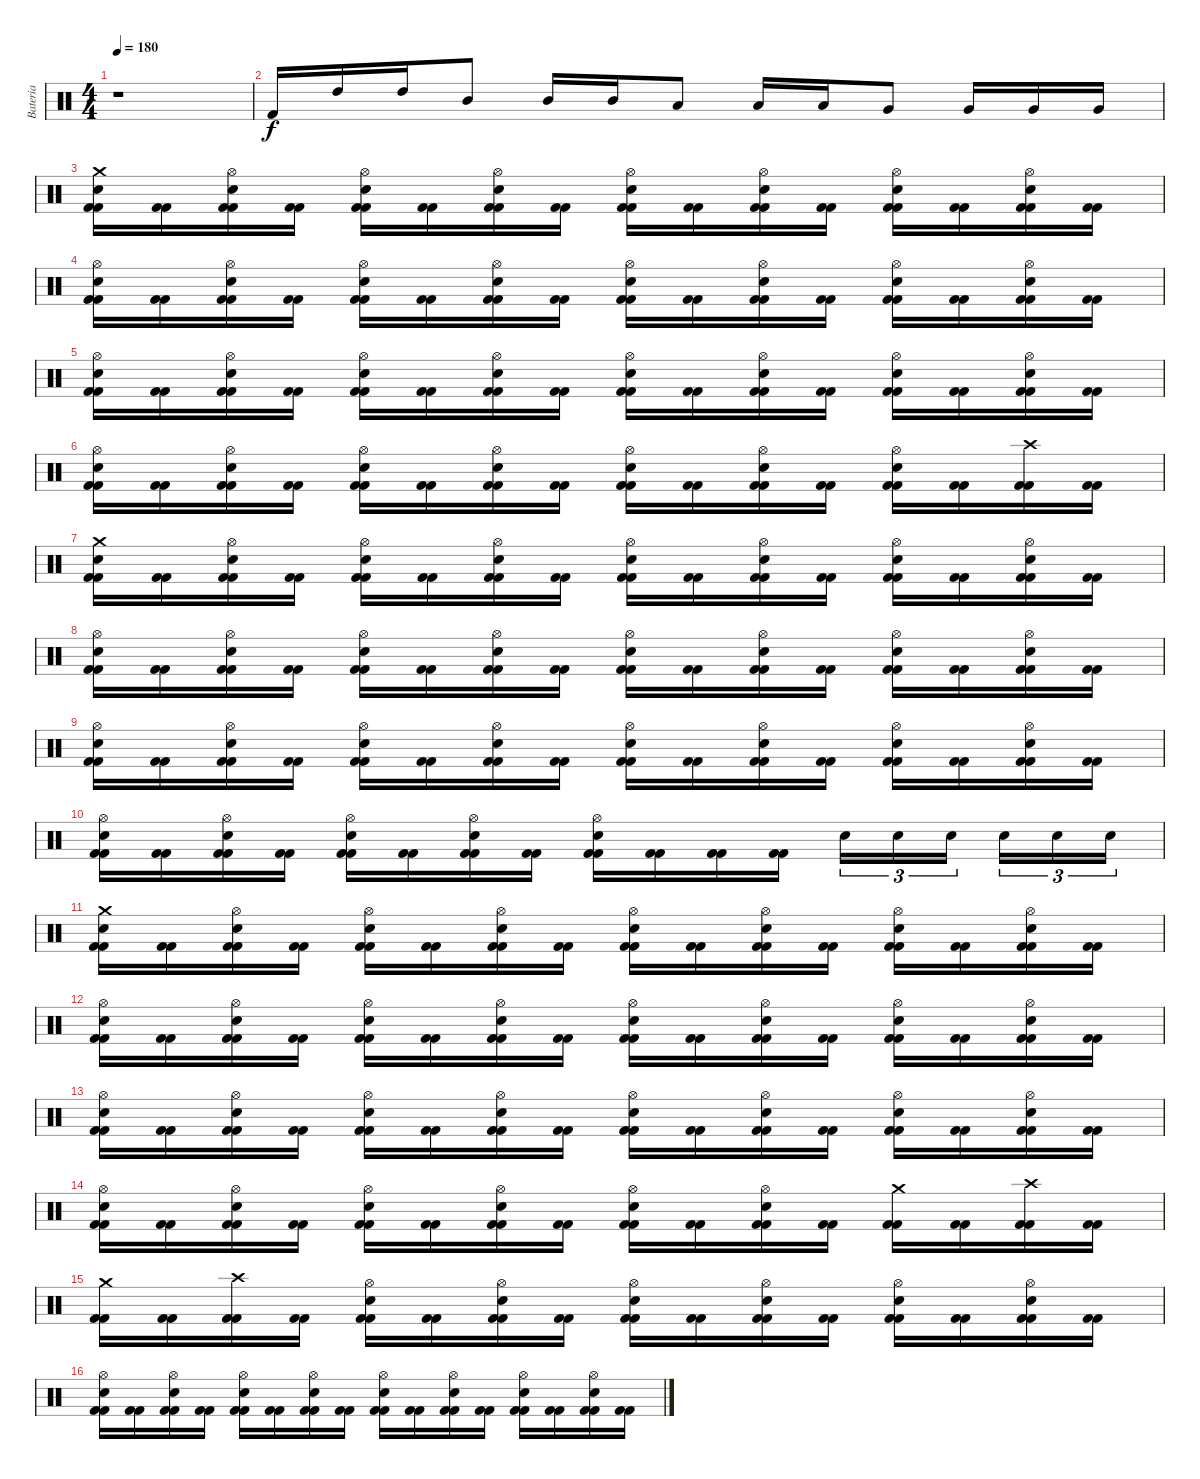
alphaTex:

\track ("Bateria" "Bateria") {instrument percussion}
\staff {score}
\articulation defaults
\ts (4 4)
\tempo 180
\clef neutral
\ks c
r.1{dy f} |
"Kick (hit) 2".16 "High Tom (hit)".16 "High Tom (hit)".16 "Mid Tom (hit)".8 "Mid Tom (hit)".16 "Mid Tom (hit)".16 "Low Tom (hit)".8 "Low Tom (hit)".16 "Low Tom (hit)".16 "Very Low Tom (hit)".8 "Very Low Tom (hit)".16 "Very Low Tom (hit)".16 "Very Low Tom (hit)".16 |
("Kick (hit) 2" "Kick (hit) 2" "Electric Snare (hit)" "Crash medium (hit)").16 ("Kick (hit) 2" "Kick (hit) 2").16 ("Kick (hit) 2" "Kick (hit) 2" "Hi-Hat (open)" "Electric Snare (hit)").16 ("Kick (hit) 2" "Kick (hit) 2").16 ("Kick (hit) 2" "Kick (hit) 2" "Electric Snare (hit)" "Hi-Hat (open)").16 ("Kick (hit) 2" "Kick (hit) 2").16 ("Kick (hit) 2" "Kick (hit) 2" "Hi-Hat (open)" "Electric Snare (hit)").16 ("Kick (hit) 2" "Kick (hit) 2").16 ("Kick (hit) 2" "Kick (hit) 2" "Electric Snare (hit)" "Hi-Hat (open)").16 ("Kick (hit) 2" "Kick (hit) 2").16 ("Kick (hit) 2" "Kick (hit) 2" "Hi-Hat (open)" "Electric Snare (hit)").16 ("Kick (hit) 2" "Kick (hit) 2").16 ("Kick (hit) 2" "Kick (hit) 2" "Electric Snare (hit)" "Hi-Hat (open)").16 ("Kick (hit) 2" "Kick (hit) 2").16 ("Kick (hit) 2" "Kick (hit) 2" "Hi-Hat (open)" "Electric Snare (hit)").16 ("Kick (hit) 2" "Kick (hit) 2").16 |
("Kick (hit) 2" "Kick (hit) 2" "Electric Snare (hit)" "Hi-Hat (open)").16 ("Kick (hit) 2" "Kick (hit) 2").16 ("Kick (hit) 2" "Kick (hit) 2" "Hi-Hat (open)" "Electric Snare (hit)").16 ("Kick (hit) 2" "Kick (hit) 2").16 ("Kick (hit) 2" "Kick (hit) 2" "Electric Snare (hit)" "Hi-Hat (open)").16 ("Kick (hit) 2" "Kick (hit) 2").16 ("Kick (hit) 2" "Kick (hit) 2" "Hi-Hat (open)" "Electric Snare (hit)").16 ("Kick (hit) 2" "Kick (hit) 2").16 ("Kick (hit) 2" "Kick (hit) 2" "Electric Snare (hit)" "Hi-Hat (open)").16 ("Kick (hit) 2" "Kick (hit) 2").16 ("Kick (hit) 2" "Kick (hit) 2" "Hi-Hat (open)" "Electric Snare (hit)").16 ("Kick (hit) 2" "Kick (hit) 2").16 ("Kick (hit) 2" "Kick (hit) 2" "Electric Snare (hit)" "Hi-Hat (open)").16 ("Kick (hit) 2" "Kick (hit) 2").16 ("Kick (hit) 2" "Kick (hit) 2" "Hi-Hat (open)" "Electric Snare (hit)").16 ("Kick (hit) 2" "Kick (hit) 2").16 |
("Kick (hit) 2" "Kick (hit) 2" "Electric Snare (hit)" "Hi-Hat (open)").16 ("Kick (hit) 2" "Kick (hit) 2").16 ("Kick (hit) 2" "Kick (hit) 2" "Hi-Hat (open)" "Electric Snare (hit)").16 ("Kick (hit) 2" "Kick (hit) 2").16 ("Kick (hit) 2" "Kick (hit) 2" "Electric Snare (hit)" "Hi-Hat (open)").16 ("Kick (hit) 2" "Kick (hit) 2").16 ("Kick (hit) 2" "Kick (hit) 2" "Hi-Hat (open)" "Electric Snare (hit)").16 ("Kick (hit) 2" "Kick (hit) 2").16 ("Kick (hit) 2" "Kick (hit) 2" "Electric Snare (hit)" "Hi-Hat (open)").16 ("Kick (hit) 2" "Kick (hit) 2").16 ("Kick (hit) 2" "Kick (hit) 2" "Hi-Hat (open)" "Electric Snare (hit)").16 ("Kick (hit) 2" "Kick (hit) 2").16 ("Kick (hit) 2" "Kick (hit) 2" "Electric Snare (hit)" "Hi-Hat (open)").16 ("Kick (hit) 2" "Kick (hit) 2").16 ("Kick (hit) 2" "Kick (hit) 2" "Hi-Hat (open)" "Electric Snare (hit)").16 ("Kick (hit) 2" "Kick (hit) 2").16 |
("Kick (hit) 2" "Kick (hit) 2" "Electric Snare (hit)" "Hi-Hat (open)").16 ("Kick (hit) 2" "Kick (hit) 2").16 ("Kick (hit) 2" "Kick (hit) 2" "Hi-Hat (open)" "Electric Snare (hit)").16 ("Kick (hit) 2" "Kick (hit) 2").16 ("Kick (hit) 2" "Kick (hit) 2" "Electric Snare (hit)" "Hi-Hat (open)").16 ("Kick (hit) 2" "Kick (hit) 2").16 ("Kick (hit) 2" "Kick (hit) 2" "Hi-Hat (open)" "Electric Snare (hit)").16 ("Kick (hit) 2" "Kick (hit) 2").16 ("Kick (hit) 2" "Kick (hit) 2" "Electric Snare (hit)" "Hi-Hat (open)").16 ("Kick (hit) 2" "Kick (hit) 2").16 ("Kick (hit) 2" "Kick (hit) 2" "Hi-Hat (open)" "Electric Snare (hit)").16 ("Kick (hit) 2" "Kick (hit) 2").16 ("Kick (hit) 2" "Kick (hit) 2" "Electric Snare (hit)" "Hi-Hat (open)").16 ("Kick (hit) 2" "Kick (hit) 2").16 ("Kick (hit) 2" "Kick (hit) 2" "Crash high (hit)").16 ("Kick (hit) 2" "Kick (hit) 2").16 |
("Kick (hit) 2" "Kick (hit) 2" "Electric Snare (hit)" "Crash medium (hit)").16 ("Kick (hit) 2" "Kick (hit) 2").16 ("Kick (hit) 2" "Kick (hit) 2" "Hi-Hat (open)" "Electric Snare (hit)").16 ("Kick (hit) 2" "Kick (hit) 2").16 ("Kick (hit) 2" "Kick (hit) 2" "Electric Snare (hit)" "Hi-Hat (open)").16 ("Kick (hit) 2" "Kick (hit) 2").16 ("Kick (hit) 2" "Kick (hit) 2" "Hi-Hat (open)" "Electric Snare (hit)").16 ("Kick (hit) 2" "Kick (hit) 2").16 ("Kick (hit) 2" "Kick (hit) 2" "Electric Snare (hit)" "Hi-Hat (open)").16 ("Kick (hit) 2" "Kick (hit) 2").16 ("Kick (hit) 2" "Kick (hit) 2" "Hi-Hat (open)" "Electric Snare (hit)").16 ("Kick (hit) 2" "Kick (hit) 2").16 ("Kick (hit) 2" "Kick (hit) 2" "Electric Snare (hit)" "Hi-Hat (open)").16 ("Kick (hit) 2" "Kick (hit) 2").16 ("Kick (hit) 2" "Kick (hit) 2" "Hi-Hat (open)" "Electric Snare (hit)").16 ("Kick (hit) 2" "Kick (hit) 2").16 |
("Kick (hit) 2" "Kick (hit) 2" "Electric Snare (hit)" "Hi-Hat (open)").16 ("Kick (hit) 2" "Kick (hit) 2").16 ("Kick (hit) 2" "Kick (hit) 2" "Hi-Hat (open)" "Electric Snare (hit)").16 ("Kick (hit) 2" "Kick (hit) 2").16 ("Kick (hit) 2" "Kick (hit) 2" "Electric Snare (hit)" "Hi-Hat (open)").16 ("Kick (hit) 2" "Kick (hit) 2").16 ("Kick (hit) 2" "Kick (hit) 2" "Hi-Hat (open)" "Electric Snare (hit)").16 ("Kick (hit) 2" "Kick (hit) 2").16 ("Kick (hit) 2" "Kick (hit) 2" "Electric Snare (hit)" "Hi-Hat (open)").16 ("Kick (hit) 2" "Kick (hit) 2").16 ("Kick (hit) 2" "Kick (hit) 2" "Hi-Hat (open)" "Electric Snare (hit)").16 ("Kick (hit) 2" "Kick (hit) 2").16 ("Kick (hit) 2" "Kick (hit) 2" "Electric Snare (hit)" "Hi-Hat (open)").16 ("Kick (hit) 2" "Kick (hit) 2").16 ("Kick (hit) 2" "Kick (hit) 2" "Hi-Hat (open)" "Electric Snare (hit)").16 ("Kick (hit) 2" "Kick (hit) 2").16 |
("Kick (hit) 2" "Kick (hit) 2" "Electric Snare (hit)" "Hi-Hat (open)").16 ("Kick (hit) 2" "Kick (hit) 2").16 ("Kick (hit) 2" "Kick (hit) 2" "Hi-Hat (open)" "Electric Snare (hit)").16 ("Kick (hit) 2" "Kick (hit) 2").16 ("Kick (hit) 2" "Kick (hit) 2" "Electric Snare (hit)" "Hi-Hat (open)").16 ("Kick (hit) 2" "Kick (hit) 2").16 ("Kick (hit) 2" "Kick (hit) 2" "Hi-Hat (open)" "Electric Snare (hit)").16 ("Kick (hit) 2" "Kick (hit) 2").16 ("Kick (hit) 2" "Kick (hit) 2" "Electric Snare (hit)" "Hi-Hat (open)").16 ("Kick (hit) 2" "Kick (hit) 2").16 ("Kick (hit) 2" "Kick (hit) 2" "Hi-Hat (open)" "Electric Snare (hit)").16 ("Kick (hit) 2" "Kick (hit) 2").16 ("Kick (hit) 2" "Kick (hit) 2" "Electric Snare (hit)" "Hi-Hat (open)").16 ("Kick (hit) 2" "Kick (hit) 2").16 ("Kick (hit) 2" "Kick (hit) 2" "Hi-Hat (open)" "Electric Snare (hit)").16 ("Kick (hit) 2" "Kick (hit) 2").16 |
("Kick (hit) 2" "Kick (hit) 2" "Electric Snare (hit)" "Hi-Hat (open)").16 ("Kick (hit) 2" "Kick (hit) 2").16 ("Kick (hit) 2" "Kick (hit) 2" "Hi-Hat (open)" "Electric Snare (hit)").16 ("Kick (hit) 2" "Kick (hit) 2").16 ("Kick (hit) 2" "Kick (hit) 2" "Electric Snare (hit)" "Hi-Hat (open)").16 ("Kick (hit) 2" "Kick (hit) 2").16 ("Kick (hit) 2" "Kick (hit) 2" "Hi-Hat (open)" "Electric Snare (hit)").16 ("Kick (hit) 2" "Kick (hit) 2").16 ("Kick (hit) 2" "Kick (hit) 2" "Hi-Hat (open)" "Electric Snare (hit)").16 ("Kick (hit) 2" "Kick (hit) 2").16 ("Kick (hit) 2" "Kick (hit) 2").16 ("Kick (hit) 2" "Kick (hit) 2").16 "Electric Snare (hit)".16{tu (3 2)} "Electric Snare (hit)".16{tu (3 2)} "Electric Snare (hit)".16{tu (3 2)} "Electric Snare (hit)".16{tu (3 2)} "Electric Snare (hit)".16{tu (3 2)} "Electric Snare (hit)".16{tu (3 2)} |
("Kick (hit) 2" "Kick (hit) 2" "Electric Snare (hit)" "Crash medium (hit)").16 ("Kick (hit) 2" "Kick (hit) 2").16 ("Kick (hit) 2" "Kick (hit) 2" "Hi-Hat (open)" "Electric Snare (hit)").16 ("Kick (hit) 2" "Kick (hit) 2").16 ("Kick (hit) 2" "Kick (hit) 2" "Electric Snare (hit)" "Hi-Hat (open)").16 ("Kick (hit) 2" "Kick (hit) 2").16 ("Kick (hit) 2" "Kick (hit) 2" "Hi-Hat (open)" "Electric Snare (hit)").16 ("Kick (hit) 2" "Kick (hit) 2").16 ("Kick (hit) 2" "Kick (hit) 2" "Electric Snare (hit)" "Hi-Hat (open)").16 ("Kick (hit) 2" "Kick (hit) 2").16 ("Kick (hit) 2" "Kick (hit) 2" "Hi-Hat (open)" "Electric Snare (hit)").16 ("Kick (hit) 2" "Kick (hit) 2").16 ("Kick (hit) 2" "Kick (hit) 2" "Electric Snare (hit)" "Hi-Hat (open)").16 ("Kick (hit) 2" "Kick (hit) 2").16 ("Kick (hit) 2" "Kick (hit) 2" "Hi-Hat (open)" "Electric Snare (hit)").16 ("Kick (hit) 2" "Kick (hit) 2").16 |
("Kick (hit) 2" "Kick (hit) 2" "Electric Snare (hit)" "Hi-Hat (open)").16 ("Kick (hit) 2" "Kick (hit) 2").16 ("Kick (hit) 2" "Kick (hit) 2" "Hi-Hat (open)" "Electric Snare (hit)").16 ("Kick (hit) 2" "Kick (hit) 2").16 ("Kick (hit) 2" "Kick (hit) 2" "Electric Snare (hit)" "Hi-Hat (open)").16 ("Kick (hit) 2" "Kick (hit) 2").16 ("Kick (hit) 2" "Kick (hit) 2" "Hi-Hat (open)" "Electric Snare (hit)").16 ("Kick (hit) 2" "Kick (hit) 2").16 ("Kick (hit) 2" "Kick (hit) 2" "Electric Snare (hit)" "Hi-Hat (open)").16 ("Kick (hit) 2" "Kick (hit) 2").16 ("Kick (hit) 2" "Kick (hit) 2" "Hi-Hat (open)" "Electric Snare (hit)").16 ("Kick (hit) 2" "Kick (hit) 2").16 ("Kick (hit) 2" "Kick (hit) 2" "Electric Snare (hit)" "Hi-Hat (open)").16 ("Kick (hit) 2" "Kick (hit) 2").16 ("Kick (hit) 2" "Kick (hit) 2" "Hi-Hat (open)" "Electric Snare (hit)").16 ("Kick (hit) 2" "Kick (hit) 2").16 |
("Kick (hit) 2" "Kick (hit) 2" "Electric Snare (hit)" "Hi-Hat (open)").16 ("Kick (hit) 2" "Kick (hit) 2").16 ("Kick (hit) 2" "Kick (hit) 2" "Hi-Hat (open)" "Electric Snare (hit)").16 ("Kick (hit) 2" "Kick (hit) 2").16 ("Kick (hit) 2" "Kick (hit) 2" "Electric Snare (hit)" "Hi-Hat (open)").16 ("Kick (hit) 2" "Kick (hit) 2").16 ("Kick (hit) 2" "Kick (hit) 2" "Hi-Hat (open)" "Electric Snare (hit)").16 ("Kick (hit) 2" "Kick (hit) 2").16 ("Kick (hit) 2" "Kick (hit) 2" "Electric Snare (hit)" "Hi-Hat (open)").16 ("Kick (hit) 2" "Kick (hit) 2").16 ("Kick (hit) 2" "Kick (hit) 2" "Hi-Hat (open)" "Electric Snare (hit)").16 ("Kick (hit) 2" "Kick (hit) 2").16 ("Kick (hit) 2" "Kick (hit) 2" "Electric Snare (hit)" "Hi-Hat (open)").16 ("Kick (hit) 2" "Kick (hit) 2").16 ("Kick (hit) 2" "Kick (hit) 2" "Hi-Hat (open)" "Electric Snare (hit)").16 ("Kick (hit) 2" "Kick (hit) 2").16 |
("Kick (hit) 2" "Kick (hit) 2" "Electric Snare (hit)" "Hi-Hat (open)").16 ("Kick (hit) 2" "Kick (hit) 2").16 ("Kick (hit) 2" "Kick (hit) 2" "Hi-Hat (open)" "Electric Snare (hit)").16 ("Kick (hit) 2" "Kick (hit) 2").16 ("Kick (hit) 2" "Kick (hit) 2" "Electric Snare (hit)" "Hi-Hat (open)").16 ("Kick (hit) 2" "Kick (hit) 2").16 ("Kick (hit) 2" "Kick (hit) 2" "Hi-Hat (open)" "Electric Snare (hit)").16 ("Kick (hit) 2" "Kick (hit) 2").16 ("Kick (hit) 2" "Kick (hit) 2" "Electric Snare (hit)" "Hi-Hat (open)").16 ("Kick (hit) 2" "Kick (hit) 2").16 ("Kick (hit) 2" "Kick (hit) 2" "Hi-Hat (open)" "Electric Snare (hit)").16 ("Kick (hit) 2" "Kick (hit) 2").16 ("Kick (hit) 2" "Kick (hit) 2" "Crash medium (hit)").16 ("Kick (hit) 2" "Kick (hit) 2").16 ("Kick (hit) 2" "Kick (hit) 2" "Crash high (hit)").16 ("Kick (hit) 2" "Kick (hit) 2").16 |
("Kick (hit) 2" "Kick (hit) 2" "Crash medium (hit)").16 ("Kick (hit) 2" "Kick (hit) 2").16 ("Kick (hit) 2" "Kick (hit) 2" "Crash high (hit)").16 ("Kick (hit) 2" "Kick (hit) 2").16 ("Kick (hit) 2" "Kick (hit) 2" "Electric Snare (hit)" "Hi-Hat (open)").16 ("Kick (hit) 2" "Kick (hit) 2").16 ("Kick (hit) 2" "Kick (hit) 2" "Hi-Hat (open)" "Electric Snare (hit)").16 ("Kick (hit) 2" "Kick (hit) 2").16 ("Kick (hit) 2" "Kick (hit) 2" "Electric Snare (hit)" "Hi-Hat (open)").16 ("Kick (hit) 2" "Kick (hit) 2").16 ("Kick (hit) 2" "Kick (hit) 2" "Hi-Hat (open)" "Electric Snare (hit)").16 ("Kick (hit) 2" "Kick (hit) 2").16 ("Kick (hit) 2" "Kick (hit) 2" "Electric Snare (hit)" "Hi-Hat (open)").16 ("Kick (hit) 2" "Kick (hit) 2").16 ("Kick (hit) 2" "Kick (hit) 2" "Hi-Hat (open)" "Electric Snare (hit)").16 ("Kick (hit) 2" "Kick (hit) 2").16 |
("Kick (hit) 2" "Kick (hit) 2" "Electric Snare (hit)" "Hi-Hat (open)").16 ("Kick (hit) 2" "Kick (hit) 2").16 ("Kick (hit) 2" "Kick (hit) 2" "Hi-Hat (open)" "Electric Snare (hit)").16 ("Kick (hit) 2" "Kick (hit) 2").16 ("Kick (hit) 2" "Kick (hit) 2" "Electric Snare (hit)" "Hi-Hat (open)").16 ("Kick (hit) 2" "Kick (hit) 2").16 ("Kick (hit) 2" "Kick (hit) 2" "Hi-Hat (open)" "Electric Snare (hit)").16 ("Kick (hit) 2" "Kick (hit) 2").16 ("Kick (hit) 2" "Kick (hit) 2" "Electric Snare (hit)" "Hi-Hat (open)").16 ("Kick (hit) 2" "Kick (hit) 2").16 ("Kick (hit) 2" "Kick (hit) 2" "Hi-Hat (open)" "Electric Snare (hit)").16 ("Kick (hit) 2" "Kick (hit) 2").16 ("Kick (hit) 2" "Kick (hit) 2" "Electric Snare (hit)" "Hi-Hat (open)").16 ("Kick (hit) 2" "Kick (hit) 2").16 ("Kick (hit) 2" "Kick (hit) 2" "Hi-Hat (open)" "Electric Snare (hit)").16 ("Kick (hit) 2" "Kick (hit) 2").16
